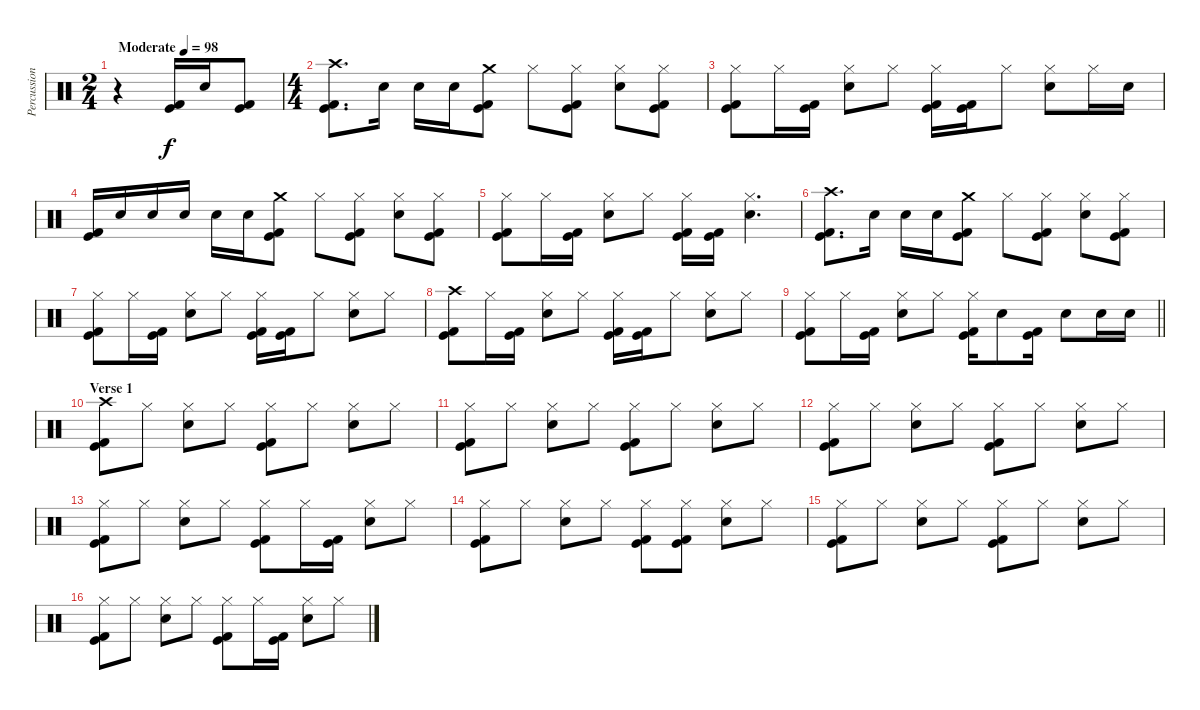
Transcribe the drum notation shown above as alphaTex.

\track ("Percussion" "Percussion") {instrument percussion}
\staff {score}
\articulation defaults
\ts (2 4)
\tempo (98 "Moderate")
\clef neutral
\ks c
r.4{dy f} ("Kick (hit)" "Kick (hit) 2").16 "Electric Snare (hit)".16 ("Kick (hit)" "Kick (hit) 2").8 |
\ts (4 4)
("Crash high (hit)" "Kick (hit)" "Kick (hit) 2").8{d} "Electric Snare (hit)".16 "Electric Snare (hit)".16 "Electric Snare (hit)".16 ("Crash medium (hit)" "Kick (hit)" "Kick (hit) 2").8 "Hi-Hat (closed)".8 ("Hi-Hat (closed)" "Kick (hit)" "Kick (hit) 2").8 ("Hi-Hat (closed)" "Electric Snare (hit)").8 ("Hi-Hat (closed)" "Kick (hit)" "Kick (hit) 2").8 |
("Hi-Hat (closed)" "Kick (hit)" "Kick (hit) 2").8 "Hi-Hat (closed)".16 ("Kick (hit)" "Kick (hit) 2").16 ("Hi-Hat (closed)" "Electric Snare (hit)").8 "Hi-Hat (closed)".8 ("Hi-Hat (closed)" "Kick (hit)" "Kick (hit) 2").16 ("Kick (hit)" "Kick (hit) 2").16 "Hi-Hat (closed)".8 ("Hi-Hat (closed)" "Electric Snare (hit)").8 "Hi-Hat (closed)".16 "Electric Snare (hit)".16 |
("Kick (hit)" "Kick (hit) 2").16 "Electric Snare (hit)".16 "Electric Snare (hit)".16 "Electric Snare (hit)".16 "Electric Snare (hit)".16 "Electric Snare (hit)".16 ("Crash medium (hit)" "Kick (hit)" "Kick (hit) 2").8 "Hi-Hat (closed)".8 ("Hi-Hat (closed)" "Kick (hit)" "Kick (hit) 2").8 ("Hi-Hat (closed)" "Electric Snare (hit)").8 ("Hi-Hat (closed)" "Kick (hit)" "Kick (hit) 2").8 |
("Hi-Hat (closed)" "Kick (hit)" "Kick (hit) 2").8 "Hi-Hat (closed)".16 ("Kick (hit)" "Kick (hit) 2").16 ("Hi-Hat (closed)" "Electric Snare (hit)").8 "Hi-Hat (closed)".8 ("Hi-Hat (closed)" "Kick (hit)" "Kick (hit) 2").16 ("Kick (hit)" "Kick (hit) 2").16 ("Hi-Hat (closed)" "Electric Snare (hit)").4{d} |
("Crash high (hit)" "Kick (hit)" "Kick (hit) 2").8{d} "Electric Snare (hit)".16 "Electric Snare (hit)".16 "Electric Snare (hit)".16 ("Crash medium (hit)" "Kick (hit)" "Kick (hit) 2").8 "Hi-Hat (closed)".8 ("Hi-Hat (closed)" "Kick (hit)" "Kick (hit) 2").8 ("Hi-Hat (closed)" "Electric Snare (hit)").8 ("Hi-Hat (closed)" "Kick (hit)" "Kick (hit) 2").8 |
("Hi-Hat (closed)" "Kick (hit)" "Kick (hit) 2").8 "Hi-Hat (closed)".16 ("Kick (hit)" "Kick (hit) 2").16 ("Hi-Hat (closed)" "Electric Snare (hit)").8 "Hi-Hat (closed)".8 ("Hi-Hat (closed)" "Kick (hit)" "Kick (hit) 2").16 ("Kick (hit)" "Kick (hit) 2").16 "Hi-Hat (closed)".8 ("Hi-Hat (closed)" "Electric Snare (hit)").8 "Hi-Hat (closed)".8 |
("Crash high (hit)" "Kick (hit)" "Kick (hit) 2").8 "Hi-Hat (closed)".16 ("Kick (hit)" "Kick (hit) 2").16 ("Hi-Hat (closed)" "Electric Snare (hit)").8 "Hi-Hat (closed)".8 ("Hi-Hat (closed)" "Kick (hit)" "Kick (hit) 2").16 ("Kick (hit)" "Kick (hit) 2").16 "Hi-Hat (closed)".8 ("Hi-Hat (closed)" "Electric Snare (hit)").8 "Hi-Hat (closed)".8 |
\barLineRight lightlight
("Hi-Hat (closed)" "Kick (hit)" "Kick (hit) 2").8 "Hi-Hat (closed)".16 ("Kick (hit)" "Kick (hit) 2").16 ("Hi-Hat (closed)" "Electric Snare (hit)").8 "Hi-Hat (closed)".8 ("Hi-Hat (closed)" "Kick (hit)" "Kick (hit) 2").16 "Electric Snare (hit)".8 ("Kick (hit)" "Kick (hit) 2").16 "Electric Snare (hit)".8 "Electric Snare (hit)".16 "Electric Snare (hit)".16 |
\section ("" "Verse 1")
("Crash high (hit)" "Kick (hit)" "Kick (hit) 2").8 "Hi-Hat (closed)".8 ("Hi-Hat (closed)" "Electric Snare (hit)").8 "Hi-Hat (closed)".8 ("Hi-Hat (closed)" "Kick (hit)" "Kick (hit) 2").8 "Hi-Hat (closed)".8 ("Hi-Hat (closed)" "Electric Snare (hit)").8 "Hi-Hat (closed)".8 |
("Hi-Hat (closed)" "Kick (hit)" "Kick (hit) 2").8 "Hi-Hat (closed)".8 ("Hi-Hat (closed)" "Electric Snare (hit)").8 "Hi-Hat (closed)".8 ("Hi-Hat (closed)" "Kick (hit)" "Kick (hit) 2").8 "Hi-Hat (closed)".8 ("Hi-Hat (closed)" "Electric Snare (hit)").8 "Hi-Hat (closed)".8 |
("Hi-Hat (closed)" "Kick (hit)" "Kick (hit) 2").8 "Hi-Hat (closed)".8 ("Hi-Hat (closed)" "Electric Snare (hit)").8 "Hi-Hat (closed)".8 ("Hi-Hat (closed)" "Kick (hit)" "Kick (hit) 2").8 "Hi-Hat (closed)".8 ("Hi-Hat (closed)" "Electric Snare (hit)").8 "Hi-Hat (closed)".8 |
("Hi-Hat (closed)" "Kick (hit)" "Kick (hit) 2").8 "Hi-Hat (closed)".8 ("Hi-Hat (closed)" "Electric Snare (hit)").8 "Hi-Hat (closed)".8 ("Hi-Hat (closed)" "Kick (hit)" "Kick (hit) 2").8 "Hi-Hat (closed)".16 ("Kick (hit)" "Kick (hit) 2").16 ("Hi-Hat (closed)" "Electric Snare (hit)").8 "Hi-Hat (closed)".8 |
("Hi-Hat (closed)" "Kick (hit)" "Kick (hit) 2").8 "Hi-Hat (closed)".8 ("Hi-Hat (closed)" "Electric Snare (hit)").8 "Hi-Hat (closed)".8 ("Hi-Hat (closed)" "Kick (hit)" "Kick (hit) 2").8 ("Hi-Hat (closed)" "Kick (hit)" "Kick (hit) 2").8 ("Hi-Hat (closed)" "Electric Snare (hit)").8 "Hi-Hat (closed)".8 |
("Hi-Hat (closed)" "Kick (hit)" "Kick (hit) 2").8 "Hi-Hat (closed)".8 ("Hi-Hat (closed)" "Electric Snare (hit)").8 "Hi-Hat (closed)".8 ("Hi-Hat (closed)" "Kick (hit)" "Kick (hit) 2").8 "Hi-Hat (closed)".8 ("Hi-Hat (closed)" "Electric Snare (hit)").8 "Hi-Hat (closed)".8 |
("Hi-Hat (closed)" "Kick (hit)" "Kick (hit) 2").8 "Hi-Hat (closed)".8 ("Hi-Hat (closed)" "Electric Snare (hit)").8 "Hi-Hat (closed)".8 ("Hi-Hat (closed)" "Kick (hit)" "Kick (hit) 2").8 "Hi-Hat (closed)".16 ("Kick (hit)" "Kick (hit) 2").16 ("Hi-Hat (closed)" "Electric Snare (hit)").8 "Hi-Hat (closed)".8
